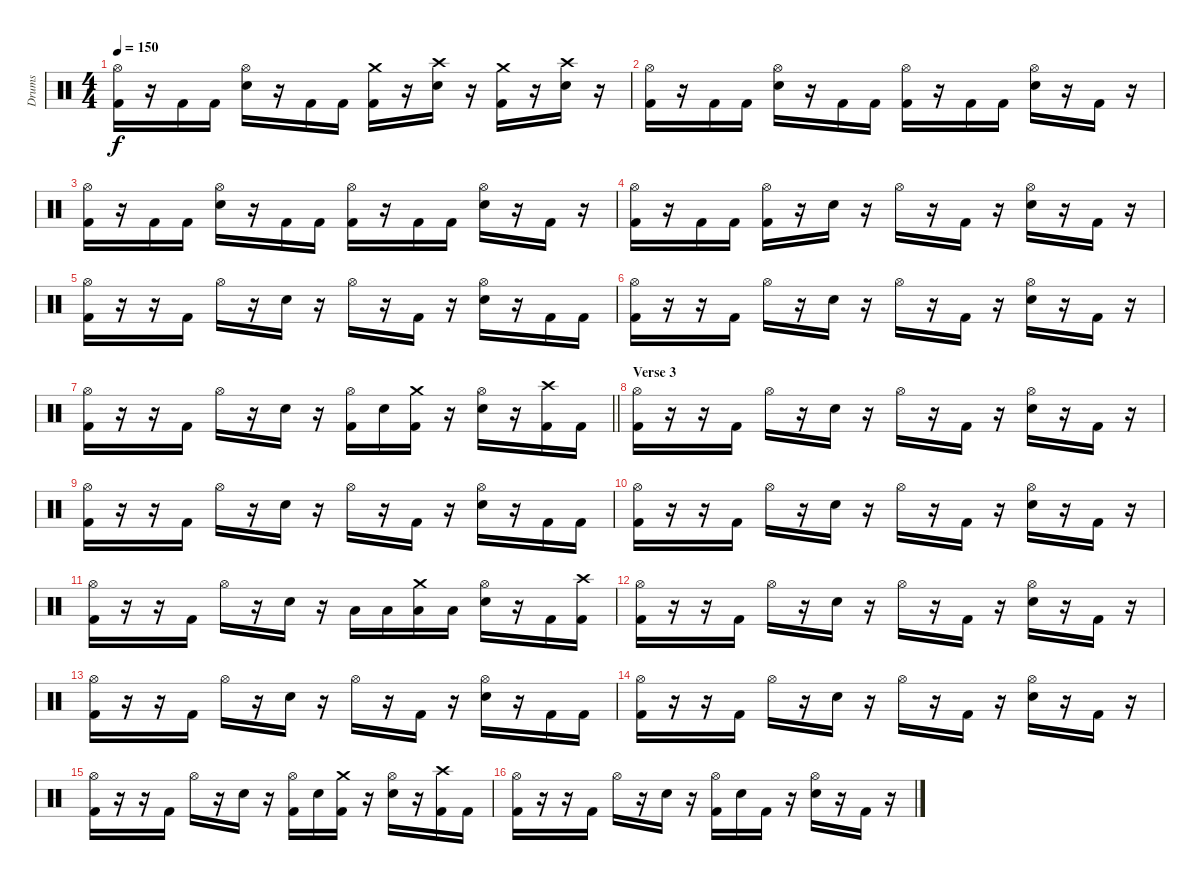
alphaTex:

\track ("Drums" "Drums") {instrument percussion}
\staff {score}
\articulation defaults
\ts (4 4)
\tempo 150
\clef neutral
\ks c
("Hi-Hat (open)" "Kick (hit) 2").16{dy f} r.16 "Kick (hit) 2".16 "Kick (hit) 2".16 ("Hi-Hat (open)" "Snare (hit) 2").16 r.16 "Kick (hit) 2".16 "Kick (hit) 2".16 ("Crash medium (hit)" "Kick (hit) 2").16 r.16 ("Crash high (hit)" "Snare (hit) 2").16 r.16 ("Crash medium (hit)" "Kick (hit) 2").16 r.16 ("Crash high (hit)" "Snare (hit) 2").16 r.16 |
("Hi-Hat (open)" "Kick (hit) 2").16 r.16 "Kick (hit) 2".16 "Kick (hit) 2".16 ("Hi-Hat (open)" "Snare (hit) 2").16 r.16 "Kick (hit) 2".16 "Kick (hit) 2".16 ("Hi-Hat (open)" "Kick (hit) 2").16 r.16 "Kick (hit) 2".16 "Kick (hit) 2".16 ("Hi-Hat (open)" "Snare (hit) 2").16 r.16 "Kick (hit) 2".16 r.16 |
("Hi-Hat (open)" "Kick (hit) 2").16 r.16 "Kick (hit) 2".16 "Kick (hit) 2".16 ("Hi-Hat (open)" "Snare (hit) 2").16 r.16 "Kick (hit) 2".16 "Kick (hit) 2".16 ("Hi-Hat (open)" "Kick (hit) 2").16 r.16 "Kick (hit) 2".16 "Kick (hit) 2".16 ("Hi-Hat (open)" "Snare (hit) 2").16 r.16 "Kick (hit) 2".16 r.16 |
("Hi-Hat (open)" "Kick (hit) 2").16 r.16 "Kick (hit) 2".16 "Kick (hit) 2".16 ("Hi-Hat (open)" "Kick (hit) 2").16 r.16 "Snare (hit) 2".16 r.16 "Hi-Hat (open)".16 r.16 "Kick (hit) 2".16 r.16 ("Hi-Hat (open)" "Snare (hit) 2").16 r.16 "Kick (hit) 2".16 r.16 |
("Hi-Hat (open)" "Kick (hit) 2").16 r.16 r.16 "Kick (hit) 2".16 "Hi-Hat (open)".16 r.16 "Snare (hit) 2".16 r.16 "Hi-Hat (open)".16 r.16 "Kick (hit) 2".16 r.16 ("Hi-Hat (open)" "Snare (hit) 2").16 r.16 "Kick (hit) 2".16 "Kick (hit) 2".16 |
("Hi-Hat (open)" "Kick (hit) 2").16 r.16 r.16 "Kick (hit) 2".16 "Hi-Hat (open)".16 r.16 "Snare (hit) 2".16 r.16 "Hi-Hat (open)".16 r.16 "Kick (hit) 2".16 r.16 ("Hi-Hat (open)" "Snare (hit) 2").16 r.16 "Kick (hit) 2".16 r.16 |
\barLineRight lightlight
("Hi-Hat (open)" "Kick (hit) 2").16 r.16 r.16 "Kick (hit) 2".16 "Hi-Hat (open)".16 r.16 "Snare (hit) 2".16 r.16 ("Hi-Hat (open)" "Kick (hit) 2").16 "Snare (hit) 2".16 ("Crash medium (hit)" "Kick (hit) 2").16 r.16 ("Hi-Hat (open)" "Snare (hit) 2").16 r.16 ("Crash high (hit)" "Kick (hit) 2").16 "Kick (hit) 2".16 |
\section ("" "Verse 3")
("Hi-Hat (open)" "Kick (hit) 2").16 r.16 r.16 "Kick (hit) 2".16 "Hi-Hat (open)".16 r.16 "Snare (hit) 2".16 r.16 "Hi-Hat (open)".16 r.16 "Kick (hit) 2".16 r.16 ("Hi-Hat (open)" "Snare (hit) 2").16 r.16 "Kick (hit) 2".16 r.16 |
("Hi-Hat (open)" "Kick (hit) 2").16 r.16 r.16 "Kick (hit) 2".16 "Hi-Hat (open)".16 r.16 "Snare (hit) 2".16 r.16 "Hi-Hat (open)".16 r.16 "Kick (hit) 2".16 r.16 ("Hi-Hat (open)" "Snare (hit) 2").16 r.16 "Kick (hit) 2".16 "Kick (hit) 2".16 |
("Hi-Hat (open)" "Kick (hit) 2").16 r.16 r.16 "Kick (hit) 2".16 "Hi-Hat (open)".16 r.16 "Snare (hit) 2".16 r.16 "Hi-Hat (open)".16 r.16 "Kick (hit) 2".16 r.16 ("Hi-Hat (open)" "Snare (hit) 2").16 r.16 "Kick (hit) 2".16 r.16 |
("Hi-Hat (open)" "Kick (hit) 2").16 r.16 r.16 "Kick (hit) 2".16 "Hi-Hat (open)".16 r.16 "Snare (hit) 2".16 r.16 "Low Tom (hit)".16 "Low Tom (hit)".16 ("Crash medium (hit)" "Low Floor Tom (hit)").16 "Low Floor Tom (hit)".16 ("Hi-Hat (open)" "Snare (hit) 2").16 r.16 "Kick (hit) 2".16 ("Crash high (hit)" "Kick (hit) 2").16 |
("Hi-Hat (open)" "Kick (hit) 2").16 r.16 r.16 "Kick (hit) 2".16 "Hi-Hat (open)".16 r.16 "Snare (hit) 2".16 r.16 "Hi-Hat (open)".16 r.16 "Kick (hit) 2".16 r.16 ("Hi-Hat (open)" "Snare (hit) 2").16 r.16 "Kick (hit) 2".16 r.16 |
("Hi-Hat (open)" "Kick (hit) 2").16 r.16 r.16 "Kick (hit) 2".16 "Hi-Hat (open)".16 r.16 "Snare (hit) 2".16 r.16 "Hi-Hat (open)".16 r.16 "Kick (hit) 2".16 r.16 ("Hi-Hat (open)" "Snare (hit) 2").16 r.16 "Kick (hit) 2".16 "Kick (hit) 2".16 |
("Hi-Hat (open)" "Kick (hit) 2").16 r.16 r.16 "Kick (hit) 2".16 "Hi-Hat (open)".16 r.16 "Snare (hit) 2".16 r.16 "Hi-Hat (open)".16 r.16 "Kick (hit) 2".16 r.16 ("Hi-Hat (open)" "Snare (hit) 2").16 r.16 "Kick (hit) 2".16 r.16 |
("Hi-Hat (open)" "Kick (hit) 2").16 r.16 r.16 "Kick (hit) 2".16 "Hi-Hat (open)".16 r.16 "Snare (hit) 2".16 r.16 ("Hi-Hat (open)" "Kick (hit) 2").16 "Snare (hit) 2".16 ("Crash medium (hit)" "Kick (hit) 2").16 r.16 ("Hi-Hat (open)" "Snare (hit) 2").16 r.16 ("Crash high (hit)" "Kick (hit) 2").16 "Kick (hit) 2".16 |
("Hi-Hat (open)" "Kick (hit) 2").16 r.16 r.16 "Kick (hit) 2".16 "Hi-Hat (open)".16 r.16 "Snare (hit) 2".16 r.16 ("Hi-Hat (open)" "Kick (hit) 2").16 "Snare (hit) 2".16 "Kick (hit) 2".16 r.16 ("Hi-Hat (open)" "Snare (hit) 2").16 r.16 "Kick (hit) 2".16 r.16
